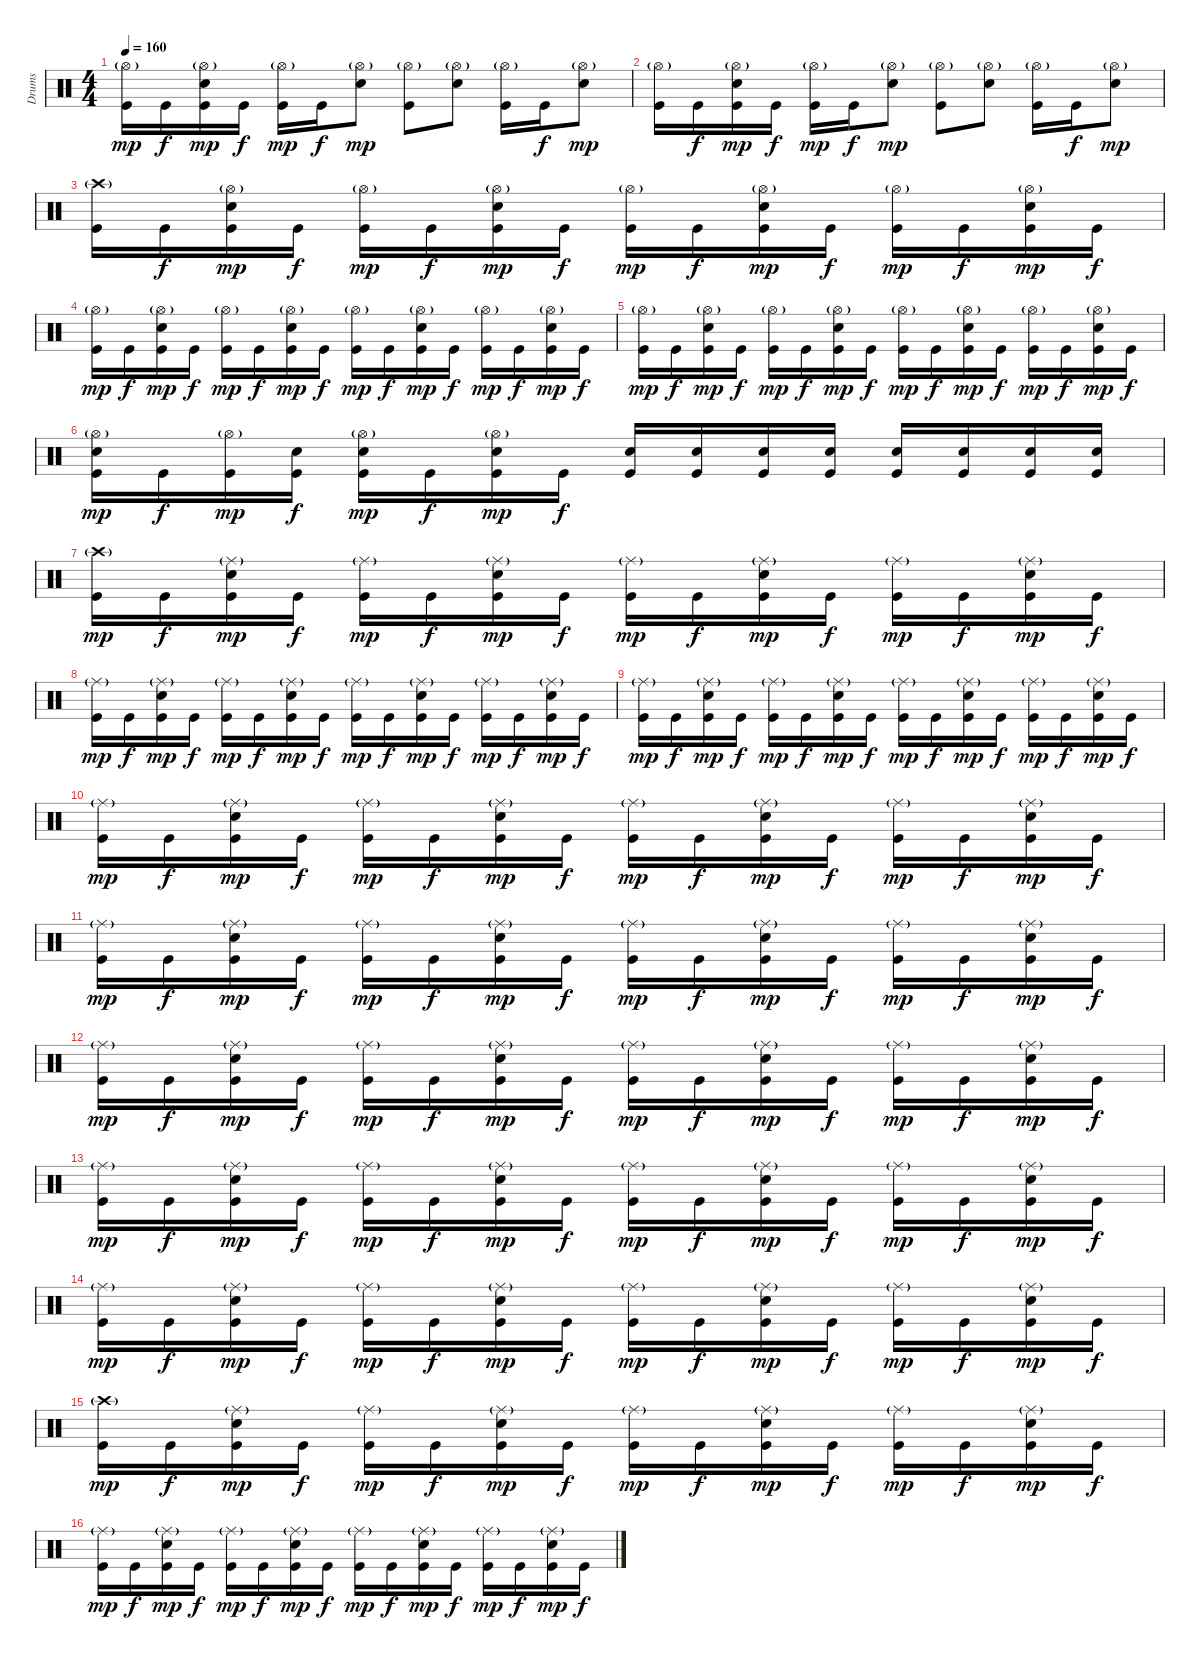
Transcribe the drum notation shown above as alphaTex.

\track ("Drums" "Drums") {instrument percussion}
\staff {score}
\articulation defaults
\ts (4 4)
\tempo 160
\clef neutral
\ks c
("Hi-Hat (open)"{g} "Kick (hit)").16{dy mp} "Kick (hit)".16{dy f} ("Hi-Hat (open)"{g} "Snare (hit) 2" "Kick (hit)").16{dy mp} "Kick (hit)".16{dy f} ("Hi-Hat (open)"{g} "Kick (hit)").16{dy mp} "Kick (hit)".16{dy f} ("Hi-Hat (open)"{g} "Snare (hit) 2").8{dy mp} ("Hi-Hat (open)"{g} "Kick (hit)").8 ("Hi-Hat (open)"{g} "Snare (hit) 2").8 ("Hi-Hat (open)"{g} "Kick (hit)").16 "Kick (hit)".16{dy f} ("Hi-Hat (open)"{g} "Snare (hit) 2").8{dy mp} |
("Hi-Hat (open)"{g} "Kick (hit)").16 "Kick (hit)".16{dy f} ("Hi-Hat (open)"{g} "Snare (hit) 2" "Kick (hit)").16{dy mp} "Kick (hit)".16{dy f} ("Hi-Hat (open)"{g} "Kick (hit)").16{dy mp} "Kick (hit)".16{dy f} ("Hi-Hat (open)"{g} "Snare (hit) 2").8{dy mp} ("Hi-Hat (open)"{g} "Kick (hit)").8 ("Hi-Hat (open)"{g} "Snare (hit) 2").8 ("Hi-Hat (open)"{g} "Kick (hit)").16 "Kick (hit)".16{dy f} ("Hi-Hat (open)"{g} "Snare (hit) 2").8{dy mp} |
("Crash high (hit)"{g} "Kick (hit)").16 "Kick (hit)".16{dy f} ("Hi-Hat (open)"{g} "Snare (hit) 2" "Kick (hit)").16{dy mp} "Kick (hit)".16{dy f} ("Hi-Hat (open)"{g} "Kick (hit)").16{dy mp} "Kick (hit)".16{dy f} ("Hi-Hat (open)"{g} "Snare (hit) 2" "Kick (hit)").16{dy mp} "Kick (hit)".16{dy f} ("Hi-Hat (open)"{g} "Kick (hit)").16{dy mp} "Kick (hit)".16{dy f} ("Hi-Hat (open)"{g} "Snare (hit) 2" "Kick (hit)").16{dy mp} "Kick (hit)".16{dy f} ("Hi-Hat (open)"{g} "Kick (hit)").16{dy mp} "Kick (hit)".16{dy f} ("Hi-Hat (open)"{g} "Snare (hit) 2" "Kick (hit)").16{dy mp} "Kick (hit)".16{dy f} |
("Hi-Hat (open)"{g} "Kick (hit)").16{dy mp} "Kick (hit)".16{dy f} ("Hi-Hat (open)"{g} "Snare (hit) 2" "Kick (hit)").16{dy mp} "Kick (hit)".16{dy f} ("Hi-Hat (open)"{g} "Kick (hit)").16{dy mp} "Kick (hit)".16{dy f} ("Hi-Hat (open)"{g} "Snare (hit) 2" "Kick (hit)").16{dy mp} "Kick (hit)".16{dy f} ("Hi-Hat (open)"{g} "Kick (hit)").16{dy mp} "Kick (hit)".16{dy f} ("Hi-Hat (open)"{g} "Snare (hit) 2" "Kick (hit)").16{dy mp} "Kick (hit)".16{dy f} ("Hi-Hat (open)"{g} "Kick (hit)").16{dy mp} "Kick (hit)".16{dy f} ("Hi-Hat (open)"{g} "Snare (hit) 2" "Kick (hit)").16{dy mp} "Kick (hit)".16{dy f} |
("Hi-Hat (open)"{g} "Kick (hit)").16{dy mp} "Kick (hit)".16{dy f} ("Hi-Hat (open)"{g} "Snare (hit) 2" "Kick (hit)").16{dy mp} "Kick (hit)".16{dy f} ("Hi-Hat (open)"{g} "Kick (hit)").16{dy mp} "Kick (hit)".16{dy f} ("Hi-Hat (open)"{g} "Snare (hit) 2" "Kick (hit)").16{dy mp} "Kick (hit)".16{dy f} ("Hi-Hat (open)"{g} "Kick (hit)").16{dy mp} "Kick (hit)".16{dy f} ("Hi-Hat (open)"{g} "Snare (hit) 2" "Kick (hit)").16{dy mp} "Kick (hit)".16{dy f} ("Hi-Hat (open)"{g} "Kick (hit)").16{dy mp} "Kick (hit)".16{dy f} ("Hi-Hat (open)"{g} "Snare (hit) 2" "Kick (hit)").16{dy mp} "Kick (hit)".16{dy f} |
("Hi-Hat (open)"{g} "Electric Snare (hit)" "Kick (hit)").16{dy mp} "Kick (hit)".16{dy f} ("Hi-Hat (open)"{g} "Kick (hit)").16{dy mp} ("Snare (hit) 2" "Kick (hit)").16{dy f} ("Hi-Hat (open)"{g} "Electric Snare (hit)" "Kick (hit)").16{dy mp} "Kick (hit)".16{dy f} ("Hi-Hat (open)"{g} "Electric Snare (hit)" "Kick (hit)").16{dy mp} "Kick (hit)".16{dy f} ("Electric Snare (hit)" "Kick (hit)").16 ("Electric Snare (hit)" "Kick (hit)").16 ("Snare (hit) 2" "Kick (hit)").16 ("Snare (hit) 2" "Kick (hit)").16 ("Electric Snare (hit)" "Kick (hit)").16 ("Electric Snare (hit)" "Kick (hit)").16 ("Electric Snare (hit)" "Kick (hit)").16 ("Electric Snare (hit)" "Kick (hit)").16 |
("Crash high (hit)"{g} "Kick (hit)").16{dy mp} "Kick (hit)".16{dy f} ("Ride (middle)"{g} "Snare (hit) 2" "Kick (hit)").16{dy mp} "Kick (hit)".16{dy f} ("Ride (middle)"{g} "Kick (hit)").16{dy mp} "Kick (hit)".16{dy f} ("Ride (middle)"{g} "Snare (hit) 2" "Kick (hit)").16{dy mp} "Kick (hit)".16{dy f} ("Ride (middle)"{g} "Kick (hit)").16{dy mp} "Kick (hit)".16{dy f} ("Ride (middle)"{g} "Snare (hit) 2" "Kick (hit)").16{dy mp} "Kick (hit)".16{dy f} ("Ride (middle)"{g} "Kick (hit)").16{dy mp} "Kick (hit)".16{dy f} ("Ride (middle)"{g} "Snare (hit) 2" "Kick (hit)").16{dy mp} "Kick (hit)".16{dy f} |
("Ride (middle)"{g} "Kick (hit)").16{dy mp} "Kick (hit)".16{dy f} ("Ride (middle)"{g} "Snare (hit) 2" "Kick (hit)").16{dy mp} "Kick (hit)".16{dy f} ("Ride (middle)"{g} "Kick (hit)").16{dy mp} "Kick (hit)".16{dy f} ("Ride (middle)"{g} "Snare (hit) 2" "Kick (hit)").16{dy mp} "Kick (hit)".16{dy f} ("Ride (middle)"{g} "Kick (hit)").16{dy mp} "Kick (hit)".16{dy f} ("Ride (middle)"{g} "Snare (hit) 2" "Kick (hit)").16{dy mp} "Kick (hit)".16{dy f} ("Ride (middle)"{g} "Kick (hit)").16{dy mp} "Kick (hit)".16{dy f} ("Ride (middle)"{g} "Snare (hit) 2" "Kick (hit)").16{dy mp} "Kick (hit)".16{dy f} |
("Ride (middle)"{g} "Kick (hit)").16{dy mp} "Kick (hit)".16{dy f} ("Ride (middle)"{g} "Snare (hit) 2" "Kick (hit)").16{dy mp} "Kick (hit)".16{dy f} ("Ride (middle)"{g} "Kick (hit)").16{dy mp} "Kick (hit)".16{dy f} ("Ride (middle)"{g} "Snare (hit) 2" "Kick (hit)").16{dy mp} "Kick (hit)".16{dy f} ("Ride (middle)"{g} "Kick (hit)").16{dy mp} "Kick (hit)".16{dy f} ("Ride (middle)"{g} "Snare (hit) 2" "Kick (hit)").16{dy mp} "Kick (hit)".16{dy f} ("Ride (middle)"{g} "Kick (hit)").16{dy mp} "Kick (hit)".16{dy f} ("Ride (middle)"{g} "Snare (hit) 2" "Kick (hit)").16{dy mp} "Kick (hit)".16{dy f} |
("Ride (middle)"{g} "Kick (hit)").16{dy mp} "Kick (hit)".16{dy f} ("Ride (middle)"{g} "Snare (hit) 2" "Kick (hit)").16{dy mp} "Kick (hit)".16{dy f} ("Ride (middle)"{g} "Kick (hit)").16{dy mp} "Kick (hit)".16{dy f} ("Ride (middle)"{g} "Snare (hit) 2" "Kick (hit)").16{dy mp} "Kick (hit)".16{dy f} ("Ride (middle)"{g} "Kick (hit)").16{dy mp} "Kick (hit)".16{dy f} ("Ride (middle)"{g} "Snare (hit) 2" "Kick (hit)").16{dy mp} "Kick (hit)".16{dy f} ("Ride (middle)"{g} "Kick (hit)").16{dy mp} "Kick (hit)".16{dy f} ("Ride (middle)"{g} "Snare (hit) 2" "Kick (hit)").16{dy mp} "Kick (hit)".16{dy f} |
("Ride (middle)"{g} "Kick (hit)").16{dy mp} "Kick (hit)".16{dy f} ("Ride (middle)"{g} "Snare (hit) 2" "Kick (hit)").16{dy mp} "Kick (hit)".16{dy f} ("Ride (middle)"{g} "Kick (hit)").16{dy mp} "Kick (hit)".16{dy f} ("Ride (middle)"{g} "Snare (hit) 2" "Kick (hit)").16{dy mp} "Kick (hit)".16{dy f} ("Ride (middle)"{g} "Kick (hit)").16{dy mp} "Kick (hit)".16{dy f} ("Ride (middle)"{g} "Snare (hit) 2" "Kick (hit)").16{dy mp} "Kick (hit)".16{dy f} ("Ride (middle)"{g} "Kick (hit)").16{dy mp} "Kick (hit)".16{dy f} ("Ride (middle)"{g} "Snare (hit) 2" "Kick (hit)").16{dy mp} "Kick (hit)".16{dy f} |
("Ride (middle)"{g} "Kick (hit)").16{dy mp} "Kick (hit)".16{dy f} ("Ride (middle)"{g} "Snare (hit) 2" "Kick (hit)").16{dy mp} "Kick (hit)".16{dy f} ("Ride (middle)"{g} "Kick (hit)").16{dy mp} "Kick (hit)".16{dy f} ("Ride (middle)"{g} "Snare (hit) 2" "Kick (hit)").16{dy mp} "Kick (hit)".16{dy f} ("Ride (middle)"{g} "Kick (hit)").16{dy mp} "Kick (hit)".16{dy f} ("Ride (middle)"{g} "Snare (hit) 2" "Kick (hit)").16{dy mp} "Kick (hit)".16{dy f} ("Ride (middle)"{g} "Kick (hit)").16{dy mp} "Kick (hit)".16{dy f} ("Ride (middle)"{g} "Snare (hit) 2" "Kick (hit)").16{dy mp} "Kick (hit)".16{dy f} |
("Ride (middle)"{g} "Kick (hit)").16{dy mp} "Kick (hit)".16{dy f} ("Ride (middle)"{g} "Snare (hit) 2" "Kick (hit)").16{dy mp} "Kick (hit)".16{dy f} ("Ride (middle)"{g} "Kick (hit)").16{dy mp} "Kick (hit)".16{dy f} ("Ride (middle)"{g} "Snare (hit) 2" "Kick (hit)").16{dy mp} "Kick (hit)".16{dy f} ("Ride (middle)"{g} "Kick (hit)").16{dy mp} "Kick (hit)".16{dy f} ("Ride (middle)"{g} "Snare (hit) 2" "Kick (hit)").16{dy mp} "Kick (hit)".16{dy f} ("Ride (middle)"{g} "Kick (hit)").16{dy mp} "Kick (hit)".16{dy f} ("Ride (middle)"{g} "Snare (hit) 2" "Kick (hit)").16{dy mp} "Kick (hit)".16{dy f} |
("Ride (middle)"{g} "Kick (hit)").16{dy mp} "Kick (hit)".16{dy f} ("Ride (middle)"{g} "Snare (hit) 2" "Kick (hit)").16{dy mp} "Kick (hit)".16{dy f} ("Ride (middle)"{g} "Kick (hit)").16{dy mp} "Kick (hit)".16{dy f} ("Ride (middle)"{g} "Snare (hit) 2" "Kick (hit)").16{dy mp} "Kick (hit)".16{dy f} ("Ride (middle)"{g} "Kick (hit)").16{dy mp} "Kick (hit)".16{dy f} ("Ride (middle)"{g} "Snare (hit) 2" "Kick (hit)").16{dy mp} "Kick (hit)".16{dy f} ("Ride (middle)"{g} "Kick (hit)").16{dy mp} "Kick (hit)".16{dy f} ("Ride (middle)"{g} "Snare (hit) 2" "Kick (hit)").16{dy mp} "Kick (hit)".16{dy f} |
("Crash high (hit)"{g} "Kick (hit)").16{dy mp} "Kick (hit)".16{dy f} ("Ride (middle)"{g} "Snare (hit) 2" "Kick (hit)").16{dy mp} "Kick (hit)".16{dy f} ("Ride (middle)"{g} "Kick (hit)").16{dy mp} "Kick (hit)".16{dy f} ("Ride (middle)"{g} "Snare (hit) 2" "Kick (hit)").16{dy mp} "Kick (hit)".16{dy f} ("Ride (middle)"{g} "Kick (hit)").16{dy mp} "Kick (hit)".16{dy f} ("Ride (middle)"{g} "Snare (hit) 2" "Kick (hit)").16{dy mp} "Kick (hit)".16{dy f} ("Ride (middle)"{g} "Kick (hit)").16{dy mp} "Kick (hit)".16{dy f} ("Ride (middle)"{g} "Snare (hit) 2" "Kick (hit)").16{dy mp} "Kick (hit)".16{dy f} |
("Ride (middle)"{g} "Kick (hit)").16{dy mp} "Kick (hit)".16{dy f} ("Ride (middle)"{g} "Snare (hit) 2" "Kick (hit)").16{dy mp} "Kick (hit)".16{dy f} ("Ride (middle)"{g} "Kick (hit)").16{dy mp} "Kick (hit)".16{dy f} ("Ride (middle)"{g} "Snare (hit) 2" "Kick (hit)").16{dy mp} "Kick (hit)".16{dy f} ("Ride (middle)"{g} "Kick (hit)").16{dy mp} "Kick (hit)".16{dy f} ("Ride (middle)"{g} "Snare (hit) 2" "Kick (hit)").16{dy mp} "Kick (hit)".16{dy f} ("Ride (middle)"{g} "Kick (hit)").16{dy mp} "Kick (hit)".16{dy f} ("Ride (middle)"{g} "Snare (hit) 2" "Kick (hit)").16{dy mp} "Kick (hit)".16{dy f}
